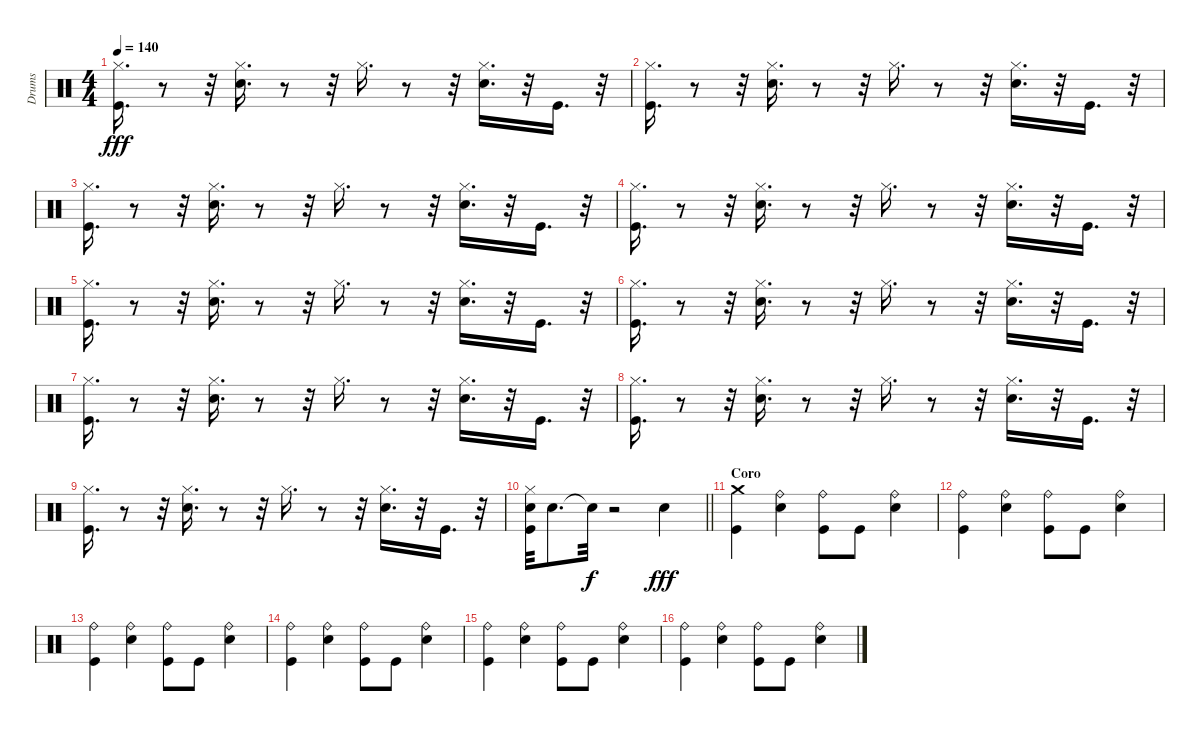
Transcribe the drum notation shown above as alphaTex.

\track ("Drums" "Drums") {instrument percussion}
\staff {score}
\articulation defaults
\ts (4 4)
\tempo 140
\clef neutral
\ks c
("Hi-Hat (closed)" "Kick (hit)").16{d dy fff} r.8 r.32 ("Hi-Hat (closed)" "Electric Snare (hit)").16{d} r.8 r.32 "Hi-Hat (closed)".16{d} r.8 r.32 ("Hi-Hat (closed)" "Electric Snare (hit)").16{d} r.32 "Kick (hit)".16{d} r.32 |
("Hi-Hat (closed)" "Kick (hit)").16{d} r.8 r.32 ("Hi-Hat (closed)" "Electric Snare (hit)").16{d} r.8 r.32 "Hi-Hat (closed)".16{d} r.8 r.32 ("Hi-Hat (closed)" "Electric Snare (hit)").16{d} r.32 "Kick (hit)".16{d} r.32 |
("Hi-Hat (closed)" "Kick (hit)").16{d} r.8 r.32 ("Hi-Hat (closed)" "Electric Snare (hit)").16{d} r.8 r.32 "Hi-Hat (closed)".16{d} r.8 r.32 ("Hi-Hat (closed)" "Electric Snare (hit)").16{d} r.32 "Kick (hit)".16{d} r.32 |
("Hi-Hat (closed)" "Kick (hit)").16{d} r.8 r.32 ("Hi-Hat (closed)" "Electric Snare (hit)").16{d} r.8 r.32 "Hi-Hat (closed)".16{d} r.8 r.32 ("Hi-Hat (closed)" "Electric Snare (hit)").16{d} r.32 "Kick (hit)".16{d} r.32 |
("Hi-Hat (closed)" "Kick (hit)").16{d} r.8 r.32 ("Hi-Hat (closed)" "Electric Snare (hit)").16{d} r.8 r.32 "Hi-Hat (closed)".16{d} r.8 r.32 ("Hi-Hat (closed)" "Electric Snare (hit)").16{d} r.32 "Kick (hit)".16{d} r.32 |
("Hi-Hat (closed)" "Kick (hit)").16{d} r.8 r.32 ("Hi-Hat (closed)" "Electric Snare (hit)").16{d} r.8 r.32 "Hi-Hat (closed)".16{d} r.8 r.32 ("Hi-Hat (closed)" "Electric Snare (hit)").16{d} r.32 "Kick (hit)".16{d} r.32 |
("Hi-Hat (closed)" "Kick (hit)").16{d} r.8 r.32 ("Hi-Hat (closed)" "Electric Snare (hit)").16{d} r.8 r.32 "Hi-Hat (closed)".16{d} r.8 r.32 ("Hi-Hat (closed)" "Electric Snare (hit)").16{d} r.32 "Kick (hit)".16{d} r.32 |
("Hi-Hat (closed)" "Kick (hit)").16{d} r.8 r.32 ("Hi-Hat (closed)" "Electric Snare (hit)").16{d} r.8 r.32 "Hi-Hat (closed)".16{d} r.8 r.32 ("Hi-Hat (closed)" "Electric Snare (hit)").16{d} r.32 "Kick (hit)".16{d} r.32 |
("Hi-Hat (closed)" "Kick (hit)").16{d} r.8 r.32 ("Hi-Hat (closed)" "Electric Snare (hit)").16{d} r.8 r.32 "Hi-Hat (closed)".16{d} r.8 r.32 ("Hi-Hat (closed)" "Electric Snare (hit)").16{d} r.32 "Kick (hit)".16{d} r.32 |
\barLineRight lightlight
("Hi-Hat (closed)" "Electric Snare (hit)" "Kick (hit)").32 "Electric Snare (hit)".8{d} "Snare (hit)"{t}.32{dy f} r.2 "Electric Snare (hit)".4{dy fff} |
\section ("" "Coro")
("Crash medium (hit)" "Kick (hit)").4 ("Ride (bell)" "Electric Snare (hit)").4 ("Ride (bell)" "Kick (hit)").8 "Kick (hit)".8 ("Ride (bell)" "Electric Snare (hit)").4 |
("Ride (bell)" "Kick (hit)").4 ("Ride (bell)" "Electric Snare (hit)").4 ("Ride (bell)" "Kick (hit)").8 "Kick (hit)".8 ("Ride (bell)" "Electric Snare (hit)").4 |
("Ride (bell)" "Kick (hit)").4 ("Ride (bell)" "Electric Snare (hit)").4 ("Ride (bell)" "Kick (hit)").8 "Kick (hit)".8 ("Ride (bell)" "Electric Snare (hit)").4 |
("Ride (bell)" "Kick (hit)").4 ("Ride (bell)" "Electric Snare (hit)").4 ("Ride (bell)" "Kick (hit)").8 "Kick (hit)".8 ("Ride (bell)" "Electric Snare (hit)").4 |
("Ride (bell)" "Kick (hit)").4 ("Ride (bell)" "Electric Snare (hit)").4 ("Ride (bell)" "Kick (hit)").8 "Kick (hit)".8 ("Ride (bell)" "Electric Snare (hit)").4 |
("Ride (bell)" "Kick (hit)").4 ("Ride (bell)" "Electric Snare (hit)").4 ("Ride (bell)" "Kick (hit)").8 "Kick (hit)".8 ("Ride (bell)" "Electric Snare (hit)").4
